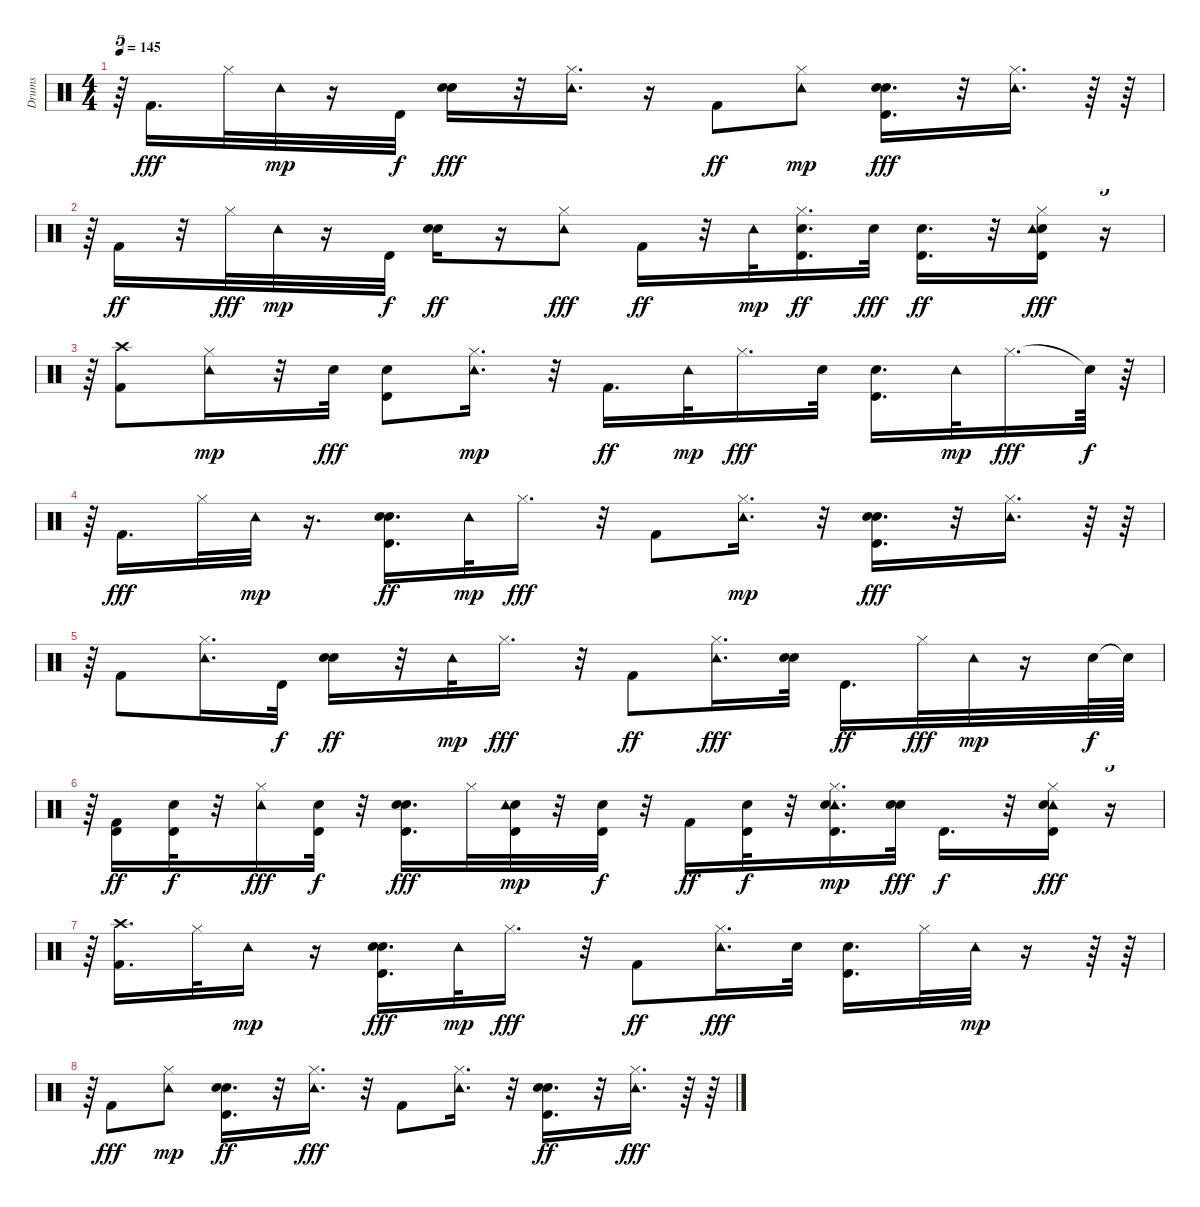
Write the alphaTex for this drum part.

\track ("Drums" "Drums") {instrument percussion}
\staff {score}
\articulation defaults
\ts (4 4)
\tempo 145
\clef neutral
\ks c
r.64{tu (5 4) dy fff} "Kick (hit) 2".16{d} "Hi-Hat (closed)".32 "Tambourine (hit)".32{dy mp} r.16 "Timbale high (hit)".32{dy f} ("Snare (hit) 2" "Hand Clap (hit)").16{dy fff} r.32 ("Tambourine (hit)" "Hi-Hat (closed)").16{d} r.16 "Kick (hit) 2".8{dy ff} ("Hi-Hat (closed)" "Tambourine (hit)").8{dy mp} ("Snare (hit) 2" "Timbale high (hit)" "Hand Clap (hit)").16{d dy fff} r.32 ("Tambourine (hit)" "Hi-Hat (closed)").16{d} r.64 r.64 |
r.64{tu (5 4)} "Kick (hit) 2".16{dy ff} r.32 "Hi-Hat (closed)".32{dy fff} "Tambourine (hit)".32{dy mp} r.16 "Timbale high (hit)".32{dy f} ("Hand Clap (hit)" "Snare (hit) 2").16{dy ff} r.16 ("Tambourine (hit)" "Hi-Hat (closed)").8{dy fff} "Kick (hit) 2".16{dy ff} r.32 "Tambourine (hit)".32{dy mp} ("Timbale high (hit)" "Snare (hit) 2" "Hi-Hat (closed)").16{d dy ff} "Hand Clap (hit)".32{dy fff} ("Timbale high (hit)" "Snare (hit) 2").16{d dy ff} r.32 ("Snare (hit) 2" "Timbale high (hit)" "Tambourine (hit)" "Hi-Hat (closed)").16{dy fff} r.16{tu (5 4)} |
r.64{tu (5 4)} ("Kick (hit) 2" "Crash high (hit)").8 ("Hi-Hat (closed)" "Tambourine (hit)").16{dy mp} r.32 "Hand Clap (hit)".32{dy fff} ("Snare (hit) 2" "Timbale high (hit)").8 ("Hi-Hat (closed)" "Tambourine (hit)").16{d dy mp} r.32 "Kick (hit) 2".16{d dy ff} "Tambourine (hit)".32{dy mp} "Hi-Hat (closed)".16{d dy fff} "Snare (hit) 2".32 ("Timbale high (hit)" "Hand Clap (hit)").16{d} "Tambourine (hit)".32{dy mp} "Hi-Hat (closed)".16{d dy fff} "Snare (hit)"{t}.64{dy f} r.64 |
r.64{tu (5 4)} "Kick (hit) 2".16{d dy fff} "Hi-Hat (closed)".32 "Tambourine (hit)".32{dy mp} r.16{d} ("Timbale high (hit)" "Hand Clap (hit)" "Snare (hit) 2").16{d dy ff} "Tambourine (hit)".32{dy mp} "Hi-Hat (closed)".16{d dy fff} r.32 "Kick (hit) 2".8 ("Hi-Hat (closed)" "Tambourine (hit)").16{d dy mp} r.32 ("Snare (hit) 2" "Timbale high (hit)" "Hand Clap (hit)").16{d dy fff} r.32 ("Tambourine (hit)" "Hi-Hat (closed)").16{d} r.64 r.64 |
r.64{tu (5 4)} "Kick (hit) 2".8 ("Tambourine (hit)" "Hi-Hat (closed)").16{d} "Timbale high (hit)".32{dy f} ("Hand Clap (hit)" "Snare (hit) 2").16{dy ff} r.32 "Tambourine (hit)".32{dy mp} "Hi-Hat (closed)".16{d dy fff} r.32 "Kick (hit) 2".8{dy ff} ("Tambourine (hit)" "Hi-Hat (closed)").16{d dy fff} ("Snare (hit) 2" "Hand Clap (hit)").32 "Timbale high (hit)".16{d dy ff} "Hi-Hat (closed)".32{dy fff} "Tambourine (hit)".32{dy mp} r.16 "Snare (hit) 2".64{dy f} "Snare (hit)"{t}.64 |
r.64{tu (5 4)} ("Timbale high (hit)" "Kick (hit) 2").16{dy ff} ("Timbale high (hit)" "Snare (hit) 2").32{dy f} r.32 ("Tambourine (hit)" "Hi-Hat (closed)").16{dy fff} ("Timbale high (hit)" "Snare (hit) 2").32{dy f} r.32 ("Timbale high (hit)" "Snare (hit) 2" "Hand Clap (hit)").16{d dy fff} "Hi-Hat (closed)".32 ("Snare (hit) 2" "Tambourine (hit)" "Timbale high (hit)").32{dy mp} r.32 ("Snare (hit) 2" "Timbale high (hit)").32{dy f} r.32 "Kick (hit) 2".16{dy ff} ("Timbale high (hit)" "Snare (hit) 2").32{dy f} r.32 ("Timbale high (hit)" "Hi-Hat (closed)" "Tambourine (hit)" "Snare (hit) 2").16{d dy mp} ("Snare (hit) 2" "Hand Clap (hit)").32{dy fff} "Timbale high (hit)".16{d dy f} r.32 ("Tambourine (hit)" "Snare (hit) 2" "Hi-Hat (closed)" "Timbale high (hit)").16{dy fff} r.16{tu (5 4)} |
r.64{tu (5 4)} ("Kick (hit) 2" "Crash high (hit)").16{d} "Hi-Hat (closed)".32 "Tambourine (hit)".16{dy mp} r.16 ("Snare (hit) 2" "Timbale high (hit)" "Hand Clap (hit)").16{d dy fff} "Tambourine (hit)".32{dy mp} "Hi-Hat (closed)".16{d dy fff} r.32 "Kick (hit) 2".8{dy ff} ("Tambourine (hit)" "Hi-Hat (closed)").16{d dy fff} "Hand Clap (hit)".32 ("Timbale high (hit)" "Snare (hit) 2").16{d} "Hi-Hat (closed)".32 "Tambourine (hit)".32{dy mp} r.16 r.64 r.64 |
r.64{tu (5 4)} "Kick (hit) 2".8{dy fff} ("Hi-Hat (closed)" "Tambourine (hit)").8{dy mp} ("Snare (hit) 2" "Hand Clap (hit)" "Timbale high (hit)").16{d dy ff} r.32 ("Tambourine (hit)" "Hi-Hat (closed)").16{d dy fff} r.32 "Kick (hit) 2".8 ("Tambourine (hit)" "Hi-Hat (closed)").16{d} r.32 ("Hand Clap (hit)" "Snare (hit) 2" "Timbale high (hit)").16{d dy ff} r.32 ("Tambourine (hit)" "Hi-Hat (closed)").16{d dy fff} r.64 r.64
